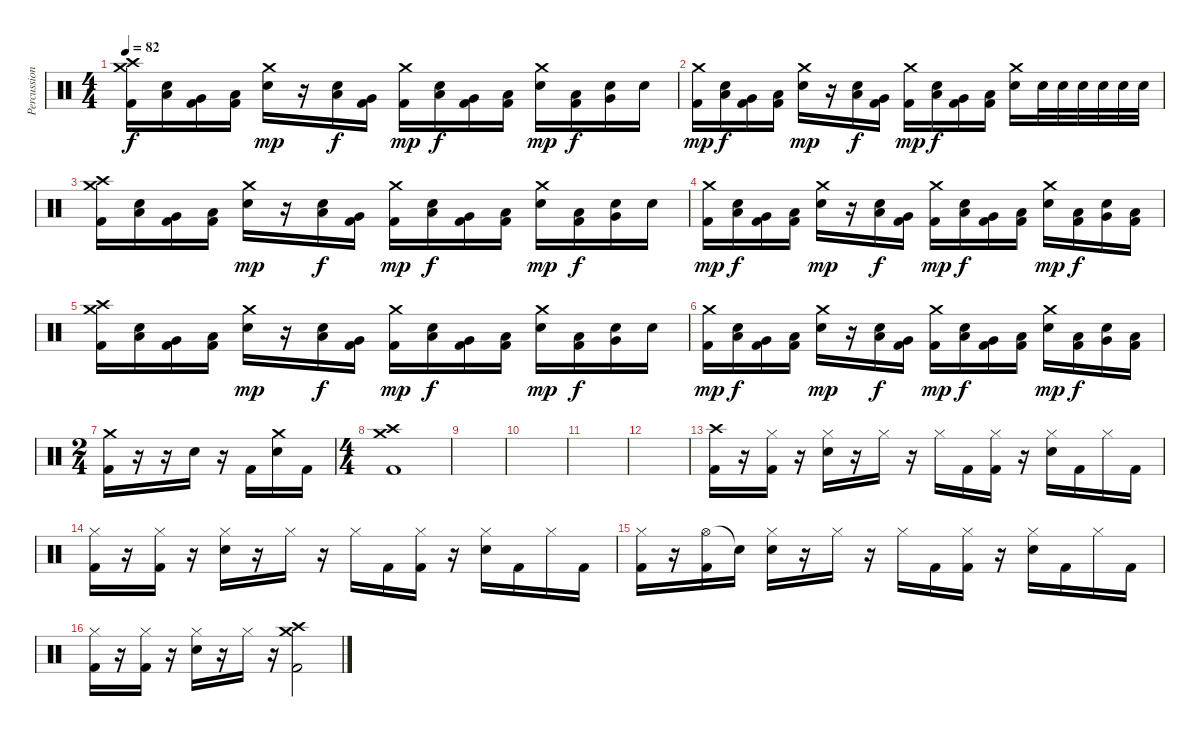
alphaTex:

\track ("Percussion" "Percussion") {instrument percussion}
\staff {score}
\articulation defaults
\ts (4 4)
\tempo 82
\clef neutral
\ks c
("Crash high (hit)" "Crash medium (hit)" "Kick (hit) 2").16{dy f} ("Low Tom (hit)" "Snare (hit) 2").16 ("Very Low Tom (hit)" "Kick (hit) 2").16 ("Low Floor Tom (hit)" "Kick (hit) 2").16 ("Crash medium (hit)" "Snare (hit) 2").16{dy mp} r.16 ("Low Tom (hit)" "Snare (hit) 2").16{dy f} ("Very Low Tom (hit)" "Kick (hit) 2").16 ("Crash medium (hit)" "Kick (hit) 2").16{dy mp} ("Low Tom (hit)" "Snare (hit) 2").16{dy f} ("Very Low Tom (hit)" "Kick (hit) 2").16 ("Low Floor Tom (hit)" "Kick (hit) 2").16 ("Crash medium (hit)" "Snare (hit) 2").16{dy mp} ("Low Tom (hit)" "Kick (hit) 2").16{dy f} ("Very Low Tom (hit)" "Snare (hit) 2").16 "Snare (hit) 2".16 |
("Crash medium (hit)" "Kick (hit) 2").16{dy mp} ("Low Tom (hit)" "Snare (hit) 2").16{dy f} ("Very Low Tom (hit)" "Kick (hit) 2").16 ("Low Floor Tom (hit)" "Kick (hit) 2").16 ("Crash medium (hit)" "Snare (hit) 2").16{dy mp} r.16 ("Low Tom (hit)" "Snare (hit) 2").16{dy f} ("Very Low Tom (hit)" "Kick (hit) 2").16 ("Crash medium (hit)" "Kick (hit) 2").16{dy mp} ("Low Tom (hit)" "Snare (hit) 2").16{dy f} ("Very Low Tom (hit)" "Kick (hit) 2").16 ("Low Floor Tom (hit)" "Kick (hit) 2").16 ("Crash medium (hit)" "Snare (hit) 2").16 "Snare (hit) 2".32 "Snare (hit) 2".32 "Snare (hit) 2".32 "Snare (hit) 2".32 "Snare (hit) 2".32 "Snare (hit) 2".32 |
("Crash high (hit)" "Crash medium (hit)" "Kick (hit) 2").16 ("Low Tom (hit)" "Snare (hit) 2").16 ("Very Low Tom (hit)" "Kick (hit) 2").16 ("Low Floor Tom (hit)" "Kick (hit) 2").16 ("Crash medium (hit)" "Snare (hit) 2").16{dy mp} r.16 ("Low Tom (hit)" "Snare (hit) 2").16{dy f} ("Very Low Tom (hit)" "Kick (hit) 2").16 ("Crash medium (hit)" "Kick (hit) 2").16{dy mp} ("Low Tom (hit)" "Snare (hit) 2").16{dy f} ("Very Low Tom (hit)" "Kick (hit) 2").16 ("Low Floor Tom (hit)" "Kick (hit) 2").16 ("Crash medium (hit)" "Snare (hit) 2").16{dy mp} ("Low Tom (hit)" "Kick (hit) 2").16{dy f} ("Very Low Tom (hit)" "Snare (hit) 2").16 "Snare (hit) 2".16 |
("Crash medium (hit)" "Kick (hit) 2").16{dy mp} ("Low Tom (hit)" "Snare (hit) 2").16{dy f} ("Very Low Tom (hit)" "Kick (hit) 2").16 ("Low Floor Tom (hit)" "Kick (hit) 2").16 ("Crash medium (hit)" "Snare (hit) 2").16{dy mp} r.16 ("Low Tom (hit)" "Snare (hit) 2").16{dy f} ("Very Low Tom (hit)" "Kick (hit) 2").16 ("Crash medium (hit)" "Kick (hit) 2").16{dy mp} ("Low Tom (hit)" "Snare (hit) 2").16{dy f} ("Very Low Tom (hit)" "Kick (hit) 2").16 ("Low Floor Tom (hit)" "Kick (hit) 2").16 ("Crash medium (hit)" "Snare (hit) 2").16{dy mp} ("Low Tom (hit)" "Kick (hit) 2").16{dy f} ("Very Low Tom (hit)" "Snare (hit) 2").16 ("Low Floor Tom (hit)" "Kick (hit) 2").16 |
("Crash high (hit)" "Crash medium (hit)" "Kick (hit) 2").16 ("Low Tom (hit)" "Snare (hit) 2").16 ("Very Low Tom (hit)" "Kick (hit) 2").16 ("Low Floor Tom (hit)" "Kick (hit) 2").16 ("Crash medium (hit)" "Snare (hit) 2").16{dy mp} r.16 ("Low Tom (hit)" "Snare (hit) 2").16{dy f} ("Very Low Tom (hit)" "Kick (hit) 2").16 ("Crash medium (hit)" "Kick (hit) 2").16{dy mp} ("Low Tom (hit)" "Snare (hit) 2").16{dy f} ("Very Low Tom (hit)" "Kick (hit) 2").16 ("Low Floor Tom (hit)" "Kick (hit) 2").16 ("Crash medium (hit)" "Snare (hit) 2").16{dy mp} ("Low Tom (hit)" "Kick (hit) 2").16{dy f} ("Very Low Tom (hit)" "Snare (hit) 2").16 "Snare (hit) 2".16 |
("Crash medium (hit)" "Kick (hit) 2").16{dy mp} ("Low Tom (hit)" "Snare (hit) 2").16{dy f} ("Very Low Tom (hit)" "Kick (hit) 2").16 ("Low Floor Tom (hit)" "Kick (hit) 2").16 ("Crash medium (hit)" "Snare (hit) 2").16{dy mp} r.16 ("Low Tom (hit)" "Snare (hit) 2").16{dy f} ("Very Low Tom (hit)" "Kick (hit) 2").16 ("Crash medium (hit)" "Kick (hit) 2").16{dy mp} ("Low Tom (hit)" "Snare (hit) 2").16{dy f} ("Very Low Tom (hit)" "Kick (hit) 2").16 ("Low Floor Tom (hit)" "Kick (hit) 2").16 ("Crash medium (hit)" "Snare (hit) 2").16{dy mp} ("Low Tom (hit)" "Kick (hit) 2").16{dy f} ("Very Low Tom (hit)" "Snare (hit) 2").16 ("Low Floor Tom (hit)" "Kick (hit) 2").16 |
\ts (2 4)
("Crash medium (hit)" "Kick (hit) 2").16 r.16 r.16 "Snare (hit) 2".16 r.16 "Kick (hit) 2".16 ("Crash medium (hit)" "Snare (hit) 2").16 "Kick (hit) 2".16 |
\ts (4 4)
("Crash high (hit)" "Crash medium (hit)" "Kick (hit) 2").1 |
|
|
|
|
("Crash high (hit)" "Kick (hit) 2").16 r.16 ("Hi-Hat (closed)" "Kick (hit) 2").16 r.16 ("Hi-Hat (closed)" "Snare (hit) 2").16 r.16 "Hi-Hat (closed)".16 r.16 "Hi-Hat (closed)".16 "Kick (hit) 2".16 ("Hi-Hat (closed)" "Kick (hit) 2").16 r.16 ("Hi-Hat (closed)" "Snare (hit) 2").16 "Kick (hit) 2".16 "Hi-Hat (closed)".16 "Kick (hit) 2".16 |
("Hi-Hat (closed)" "Kick (hit) 2").16 r.16 ("Hi-Hat (closed)" "Kick (hit) 2").16 r.16 ("Hi-Hat (closed)" "Snare (hit) 2").16 r.16 "Hi-Hat (closed)".16 r.16 "Hi-Hat (closed)".16 "Kick (hit) 2".16 ("Hi-Hat (closed)" "Kick (hit) 2").16 r.16 ("Hi-Hat (closed)" "Snare (hit) 2").16 "Kick (hit) 2".16 "Hi-Hat (closed)".16 "Kick (hit) 2".16 |
("Hi-Hat (closed)" "Kick (hit) 2").16 r.16 ("Hi-Hat (open)" "Kick (hit) 2").16 "Snare (hit)"{t}.16 ("Hi-Hat (closed)" "Snare (hit) 2").16 r.16 "Hi-Hat (closed)".16 r.16 "Hi-Hat (closed)".16 "Kick (hit) 2".16 ("Hi-Hat (closed)" "Kick (hit) 2").16 r.16 ("Hi-Hat (closed)" "Snare (hit) 2").16 "Kick (hit) 2".16 "Hi-Hat (closed)".16 "Kick (hit) 2".16 |
("Hi-Hat (closed)" "Kick (hit) 2").16 r.16 ("Hi-Hat (closed)" "Kick (hit) 2").16 r.16 ("Hi-Hat (closed)" "Snare (hit) 2").16 r.16 "Hi-Hat (closed)".16 r.16 ("Crash medium (hit)" "Crash high (hit)" "Kick (hit) 2").2
